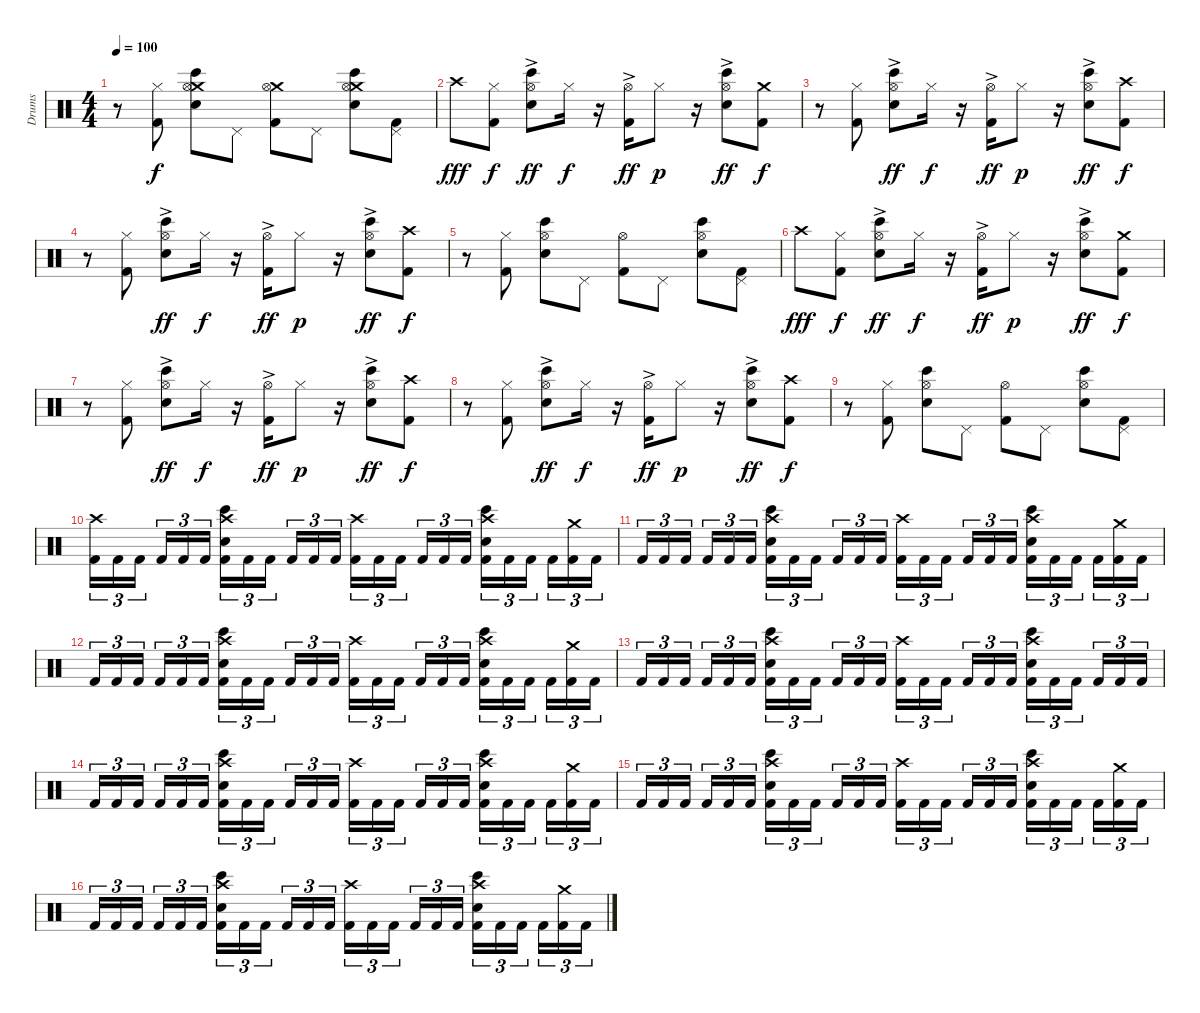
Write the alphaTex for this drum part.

\track ("Drums" "Drums") {instrument percussion}
\staff {score}
\articulation defaults
\ts (4 4)
\tempo 100
\clef neutral
\ks c
r.8{dy f} ("Hi-Hat (closed)" "Kick (hit) 2").8 ("Crash medium (hit)" "Hi-Hat (open)" "Bongo High (hit)" "Electric Snare (hit)").8 "Pedal Hi-Hat (hit)".8 ("Crash medium (hit)" "Hi-Hat (open)" "Kick (hit) 2").8 "Pedal Hi-Hat (hit)".8 ("Crash medium (hit)" "Hi-Hat (open)" "Bongo High (hit)" "Electric Snare (hit)").8 ("Pedal Hi-Hat (hit)" "Kick (hit) 2").8 |
"Crash high (hit)".8{dy fff} ("Hi-Hat (closed)" "Kick (hit) 2").8{dy f} ("Hi-Hat (open)"{ac} "Bongo High (hit)" "Electric Snare (hit)").8{dy ff} "Hi-Hat (closed)".16{dy f} r.16 ("Hi-Hat (open)"{ac} "Kick (hit) 2").16{dy ff} "Hi-Hat (closed)".8{dy p} r.16 ("Hi-Hat (open)"{ac} "Bongo High (hit)" "Electric Snare (hit)").8{dy ff} ("Crash medium (hit)" "Kick (hit) 2").8{dy f} |
r.8 ("Hi-Hat (closed)" "Kick (hit) 2").8 ("Hi-Hat (open)"{ac} "Bongo High (hit)" "Electric Snare (hit)").8{dy ff} "Hi-Hat (closed)".16{dy f} r.16 ("Hi-Hat (open)"{ac} "Kick (hit) 2").16{dy ff} "Hi-Hat (closed)".8{dy p} r.16 ("Hi-Hat (open)"{ac} "Bongo High (hit)" "Electric Snare (hit)").8{dy ff} ("Crash high (hit)" "Kick (hit) 2").8{dy f} |
r.8 ("Hi-Hat (closed)" "Kick (hit) 2").8 ("Hi-Hat (open)"{ac} "Bongo High (hit)" "Electric Snare (hit)").8{dy ff} "Hi-Hat (closed)".16{dy f} r.16 ("Hi-Hat (open)"{ac} "Kick (hit) 2").16{dy ff} "Hi-Hat (closed)".8{dy p} r.16 ("Hi-Hat (open)"{ac} "Bongo High (hit)" "Electric Snare (hit)").8{dy ff} ("Crash high (hit)" "Kick (hit) 2").8{dy f} |
r.8 ("Hi-Hat (closed)" "Kick (hit) 2").8 ("Hi-Hat (open)" "Bongo High (hit)" "Electric Snare (hit)").8 "Pedal Hi-Hat (hit)".8 ("Hi-Hat (open)" "Kick (hit) 2").8 "Pedal Hi-Hat (hit)".8 ("Hi-Hat (open)" "Bongo High (hit)" "Electric Snare (hit)").8 ("Pedal Hi-Hat (hit)" "Kick (hit) 2").8 |
"Crash high (hit)".8{dy fff} ("Hi-Hat (closed)" "Kick (hit) 2").8{dy f} ("Hi-Hat (open)"{ac} "Bongo High (hit)" "Electric Snare (hit)").8{dy ff} "Hi-Hat (closed)".16{dy f} r.16 ("Hi-Hat (open)"{ac} "Kick (hit) 2").16{dy ff} "Hi-Hat (closed)".8{dy p} r.16 ("Hi-Hat (open)"{ac} "Bongo High (hit)" "Electric Snare (hit)").8{dy ff} ("Crash medium (hit)" "Kick (hit) 2").8{dy f} |
r.8 ("Hi-Hat (closed)" "Kick (hit) 2").8 ("Hi-Hat (open)"{ac} "Bongo High (hit)" "Electric Snare (hit)").8{dy ff} "Hi-Hat (closed)".16{dy f} r.16 ("Hi-Hat (open)"{ac} "Kick (hit) 2").16{dy ff} "Hi-Hat (closed)".8{dy p} r.16 ("Hi-Hat (open)"{ac} "Bongo High (hit)" "Electric Snare (hit)").8{dy ff} ("Crash high (hit)" "Kick (hit) 2").8{dy f} |
r.8 ("Hi-Hat (closed)" "Kick (hit) 2").8 ("Hi-Hat (open)"{ac} "Bongo High (hit)" "Electric Snare (hit)").8{dy ff} "Hi-Hat (closed)".16{dy f} r.16 ("Hi-Hat (open)"{ac} "Kick (hit) 2").16{dy ff} "Hi-Hat (closed)".8{dy p} r.16 ("Hi-Hat (open)"{ac} "Bongo High (hit)" "Electric Snare (hit)").8{dy ff} ("Crash high (hit)" "Kick (hit) 2").8{dy f} |
r.8 ("Hi-Hat (closed)" "Kick (hit) 2").8 ("Hi-Hat (open)" "Bongo High (hit)" "Electric Snare (hit)").8 "Pedal Hi-Hat (hit)".8 ("Hi-Hat (open)" "Kick (hit) 2").8 "Pedal Hi-Hat (hit)".8 ("Hi-Hat (open)" "Bongo High (hit)" "Electric Snare (hit)").8 ("Pedal Hi-Hat (hit)" "Kick (hit) 2").8 |
("Crash high (hit)" "Kick (hit) 2").16{tu (3 2)} "Kick (hit) 2".16{tu (3 2)} "Kick (hit) 2".16{tu (3 2) beam splitsecondary} "Kick (hit) 2".16{tu (3 2)} "Kick (hit) 2".16{tu (3 2)} "Kick (hit) 2".16{tu (3 2)} ("Crash high (hit)" "Kick (hit) 2" "Bongo High (hit)" "Electric Snare (hit)").16{tu (3 2)} "Kick (hit) 2".16{tu (3 2)} "Kick (hit) 2".16{tu (3 2) beam splitsecondary} "Kick (hit) 2".16{tu (3 2)} "Kick (hit) 2".16{tu (3 2)} "Kick (hit) 2".16{tu (3 2)} ("Crash high (hit)" "Kick (hit) 2").16{tu (3 2)} "Kick (hit) 2".16{tu (3 2)} "Kick (hit) 2".16{tu (3 2) beam splitsecondary} "Kick (hit) 2".16{tu (3 2)} "Kick (hit) 2".16{tu (3 2)} "Kick (hit) 2".16{tu (3 2)} ("Crash high (hit)" "Kick (hit) 2" "Bongo High (hit)" "Electric Snare (hit)").16{tu (3 2)} "Kick (hit) 2".16{tu (3 2)} "Kick (hit) 2".16{tu (3 2) beam splitsecondary} "Kick (hit) 2".16{tu (3 2)} ("Crash medium (hit)" "Kick (hit) 2").16{tu (3 2)} "Kick (hit) 2".16{tu (3 2)} |
"Kick (hit) 2".16{tu (3 2)} "Kick (hit) 2".16{tu (3 2)} "Kick (hit) 2".16{tu (3 2) beam splitsecondary} "Kick (hit) 2".16{tu (3 2)} "Kick (hit) 2".16{tu (3 2)} "Kick (hit) 2".16{tu (3 2)} ("Crash high (hit)" "Kick (hit) 2" "Bongo High (hit)" "Electric Snare (hit)").16{tu (3 2)} "Kick (hit) 2".16{tu (3 2)} "Kick (hit) 2".16{tu (3 2) beam splitsecondary} "Kick (hit) 2".16{tu (3 2)} "Kick (hit) 2".16{tu (3 2)} "Kick (hit) 2".16{tu (3 2)} ("Crash high (hit)" "Kick (hit) 2").16{tu (3 2)} "Kick (hit) 2".16{tu (3 2)} "Kick (hit) 2".16{tu (3 2) beam splitsecondary} "Kick (hit) 2".16{tu (3 2)} "Kick (hit) 2".16{tu (3 2)} "Kick (hit) 2".16{tu (3 2)} ("Crash high (hit)" "Kick (hit) 2" "Bongo High (hit)" "Electric Snare (hit)").16{tu (3 2)} "Kick (hit) 2".16{tu (3 2)} "Kick (hit) 2".16{tu (3 2) beam splitsecondary} "Kick (hit) 2".16{tu (3 2)} ("Crash medium (hit)" "Kick (hit) 2").16{tu (3 2)} "Kick (hit) 2".16{tu (3 2)} |
"Kick (hit) 2".16{tu (3 2)} "Kick (hit) 2".16{tu (3 2)} "Kick (hit) 2".16{tu (3 2) beam splitsecondary} "Kick (hit) 2".16{tu (3 2)} "Kick (hit) 2".16{tu (3 2)} "Kick (hit) 2".16{tu (3 2)} ("Crash high (hit)" "Kick (hit) 2" "Bongo High (hit)" "Electric Snare (hit)").16{tu (3 2)} "Kick (hit) 2".16{tu (3 2)} "Kick (hit) 2".16{tu (3 2) beam splitsecondary} "Kick (hit) 2".16{tu (3 2)} "Kick (hit) 2".16{tu (3 2)} "Kick (hit) 2".16{tu (3 2)} ("Crash high (hit)" "Kick (hit) 2").16{tu (3 2)} "Kick (hit) 2".16{tu (3 2)} "Kick (hit) 2".16{tu (3 2) beam splitsecondary} "Kick (hit) 2".16{tu (3 2)} "Kick (hit) 2".16{tu (3 2)} "Kick (hit) 2".16{tu (3 2)} ("Crash high (hit)" "Kick (hit) 2" "Bongo High (hit)" "Electric Snare (hit)").16{tu (3 2)} "Kick (hit) 2".16{tu (3 2)} "Kick (hit) 2".16{tu (3 2) beam splitsecondary} "Kick (hit) 2".16{tu (3 2)} ("Crash medium (hit)" "Kick (hit) 2").16{tu (3 2)} "Kick (hit) 2".16{tu (3 2)} |
"Kick (hit) 2".16{tu (3 2)} "Kick (hit) 2".16{tu (3 2)} "Kick (hit) 2".16{tu (3 2) beam splitsecondary} "Kick (hit) 2".16{tu (3 2)} "Kick (hit) 2".16{tu (3 2)} "Kick (hit) 2".16{tu (3 2)} ("Crash high (hit)" "Kick (hit) 2" "Bongo High (hit)" "Electric Snare (hit)").16{tu (3 2)} "Kick (hit) 2".16{tu (3 2)} "Kick (hit) 2".16{tu (3 2) beam splitsecondary} "Kick (hit) 2".16{tu (3 2)} "Kick (hit) 2".16{tu (3 2)} "Kick (hit) 2".16{tu (3 2)} ("Crash high (hit)" "Kick (hit) 2").16{tu (3 2)} "Kick (hit) 2".16{tu (3 2)} "Kick (hit) 2".16{tu (3 2) beam splitsecondary} "Kick (hit) 2".16{tu (3 2)} "Kick (hit) 2".16{tu (3 2)} "Kick (hit) 2".16{tu (3 2)} ("Crash high (hit)" "Kick (hit) 2" "Bongo High (hit)" "Electric Snare (hit)").16{tu (3 2)} "Kick (hit) 2".16{tu (3 2)} "Kick (hit) 2".16{tu (3 2) beam splitsecondary} "Kick (hit) 2".16{tu (3 2)} "Kick (hit) 2".16{tu (3 2)} "Kick (hit) 2".16{tu (3 2)} |
"Kick (hit) 2".16{tu (3 2)} "Kick (hit) 2".16{tu (3 2)} "Kick (hit) 2".16{tu (3 2) beam splitsecondary} "Kick (hit) 2".16{tu (3 2)} "Kick (hit) 2".16{tu (3 2)} "Kick (hit) 2".16{tu (3 2)} ("Crash high (hit)" "Kick (hit) 2" "Bongo High (hit)" "Electric Snare (hit)").16{tu (3 2)} "Kick (hit) 2".16{tu (3 2)} "Kick (hit) 2".16{tu (3 2) beam splitsecondary} "Kick (hit) 2".16{tu (3 2)} "Kick (hit) 2".16{tu (3 2)} "Kick (hit) 2".16{tu (3 2)} ("Crash high (hit)" "Kick (hit) 2").16{tu (3 2)} "Kick (hit) 2".16{tu (3 2)} "Kick (hit) 2".16{tu (3 2) beam splitsecondary} "Kick (hit) 2".16{tu (3 2)} "Kick (hit) 2".16{tu (3 2)} "Kick (hit) 2".16{tu (3 2)} ("Crash high (hit)" "Kick (hit) 2" "Bongo High (hit)" "Electric Snare (hit)").16{tu (3 2)} "Kick (hit) 2".16{tu (3 2)} "Kick (hit) 2".16{tu (3 2) beam splitsecondary} "Kick (hit) 2".16{tu (3 2)} ("Crash medium (hit)" "Kick (hit) 2").16{tu (3 2)} "Kick (hit) 2".16{tu (3 2)} |
"Kick (hit) 2".16{tu (3 2)} "Kick (hit) 2".16{tu (3 2)} "Kick (hit) 2".16{tu (3 2) beam splitsecondary} "Kick (hit) 2".16{tu (3 2)} "Kick (hit) 2".16{tu (3 2)} "Kick (hit) 2".16{tu (3 2)} ("Crash high (hit)" "Kick (hit) 2" "Bongo High (hit)" "Electric Snare (hit)").16{tu (3 2)} "Kick (hit) 2".16{tu (3 2)} "Kick (hit) 2".16{tu (3 2) beam splitsecondary} "Kick (hit) 2".16{tu (3 2)} "Kick (hit) 2".16{tu (3 2)} "Kick (hit) 2".16{tu (3 2)} ("Crash high (hit)" "Kick (hit) 2").16{tu (3 2)} "Kick (hit) 2".16{tu (3 2)} "Kick (hit) 2".16{tu (3 2) beam splitsecondary} "Kick (hit) 2".16{tu (3 2)} "Kick (hit) 2".16{tu (3 2)} "Kick (hit) 2".16{tu (3 2)} ("Crash high (hit)" "Kick (hit) 2" "Bongo High (hit)" "Electric Snare (hit)").16{tu (3 2)} "Kick (hit) 2".16{tu (3 2)} "Kick (hit) 2".16{tu (3 2) beam splitsecondary} "Kick (hit) 2".16{tu (3 2)} ("Crash medium (hit)" "Kick (hit) 2").16{tu (3 2)} "Kick (hit) 2".16{tu (3 2)} |
"Kick (hit) 2".16{tu (3 2)} "Kick (hit) 2".16{tu (3 2)} "Kick (hit) 2".16{tu (3 2) beam splitsecondary} "Kick (hit) 2".16{tu (3 2)} "Kick (hit) 2".16{tu (3 2)} "Kick (hit) 2".16{tu (3 2)} ("Crash high (hit)" "Kick (hit) 2" "Bongo High (hit)" "Electric Snare (hit)").16{tu (3 2)} "Kick (hit) 2".16{tu (3 2)} "Kick (hit) 2".16{tu (3 2) beam splitsecondary} "Kick (hit) 2".16{tu (3 2)} "Kick (hit) 2".16{tu (3 2)} "Kick (hit) 2".16{tu (3 2)} ("Crash high (hit)" "Kick (hit) 2").16{tu (3 2)} "Kick (hit) 2".16{tu (3 2)} "Kick (hit) 2".16{tu (3 2) beam splitsecondary} "Kick (hit) 2".16{tu (3 2)} "Kick (hit) 2".16{tu (3 2)} "Kick (hit) 2".16{tu (3 2)} ("Crash high (hit)" "Kick (hit) 2" "Bongo High (hit)" "Electric Snare (hit)").16{tu (3 2)} "Kick (hit) 2".16{tu (3 2)} "Kick (hit) 2".16{tu (3 2) beam splitsecondary} "Kick (hit) 2".16{tu (3 2)} ("Crash medium (hit)" "Kick (hit) 2").16{tu (3 2)} "Kick (hit) 2".16{tu (3 2)}
